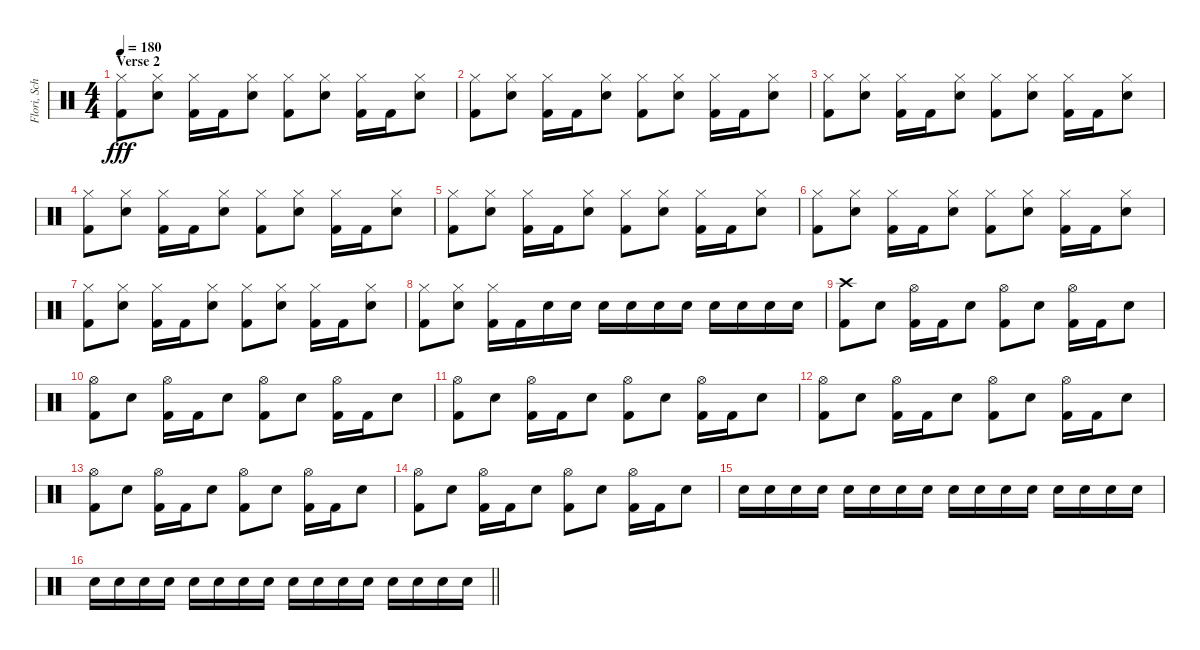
\track ("Flori, Schlagzeug" "Flori, Sch") {instrument percussion}
\staff {score}
\articulation defaults
\ts (4 4)
\section ("" "Verse 2")
\tempo 180
\clef neutral
\ks c
("Hi-Hat (closed)" "Kick (hit) 2").8{dy fff} ("Hi-Hat (closed)" "Electric Snare (hit)").8 ("Hi-Hat (closed)" "Kick (hit) 2").16 "Kick (hit) 2".16 ("Hi-Hat (closed)" "Electric Snare (hit)").8 ("Hi-Hat (closed)" "Kick (hit) 2").8 ("Hi-Hat (closed)" "Electric Snare (hit)").8 ("Hi-Hat (closed)" "Kick (hit) 2").16 "Kick (hit) 2".16 ("Hi-Hat (closed)" "Electric Snare (hit)").8 |
("Hi-Hat (closed)" "Kick (hit) 2").8 ("Hi-Hat (closed)" "Electric Snare (hit)").8 ("Hi-Hat (closed)" "Kick (hit) 2").16 "Kick (hit) 2".16 ("Hi-Hat (closed)" "Electric Snare (hit)").8 ("Hi-Hat (closed)" "Kick (hit) 2").8 ("Hi-Hat (closed)" "Electric Snare (hit)").8 ("Hi-Hat (closed)" "Kick (hit) 2").16 "Kick (hit) 2".16 ("Hi-Hat (closed)" "Electric Snare (hit)").8 |
("Hi-Hat (closed)" "Kick (hit) 2").8 ("Hi-Hat (closed)" "Electric Snare (hit)").8 ("Hi-Hat (closed)" "Kick (hit) 2").16 "Kick (hit) 2".16 ("Hi-Hat (closed)" "Electric Snare (hit)").8 ("Hi-Hat (closed)" "Kick (hit) 2").8 ("Hi-Hat (closed)" "Electric Snare (hit)").8 ("Hi-Hat (closed)" "Kick (hit) 2").16 "Kick (hit) 2".16 ("Hi-Hat (closed)" "Electric Snare (hit)").8 |
("Hi-Hat (closed)" "Kick (hit) 2").8 ("Hi-Hat (closed)" "Electric Snare (hit)").8 ("Hi-Hat (closed)" "Kick (hit) 2").16 "Kick (hit) 2".16 ("Hi-Hat (closed)" "Electric Snare (hit)").8 ("Hi-Hat (closed)" "Kick (hit) 2").8 ("Hi-Hat (closed)" "Electric Snare (hit)").8 ("Hi-Hat (closed)" "Kick (hit) 2").16 "Kick (hit) 2".16 ("Hi-Hat (closed)" "Electric Snare (hit)").8 |
("Hi-Hat (closed)" "Kick (hit) 2").8 ("Hi-Hat (closed)" "Electric Snare (hit)").8 ("Hi-Hat (closed)" "Kick (hit) 2").16 "Kick (hit) 2".16 ("Hi-Hat (closed)" "Electric Snare (hit)").8 ("Hi-Hat (closed)" "Kick (hit) 2").8 ("Hi-Hat (closed)" "Electric Snare (hit)").8 ("Hi-Hat (closed)" "Kick (hit) 2").16 "Kick (hit) 2".16 ("Hi-Hat (closed)" "Electric Snare (hit)").8 |
("Hi-Hat (closed)" "Kick (hit) 2").8 ("Hi-Hat (closed)" "Electric Snare (hit)").8 ("Hi-Hat (closed)" "Kick (hit) 2").16 "Kick (hit) 2".16 ("Hi-Hat (closed)" "Electric Snare (hit)").8 ("Hi-Hat (closed)" "Kick (hit) 2").8 ("Hi-Hat (closed)" "Electric Snare (hit)").8 ("Hi-Hat (closed)" "Kick (hit) 2").16 "Kick (hit) 2".16 ("Hi-Hat (closed)" "Electric Snare (hit)").8 |
("Hi-Hat (closed)" "Kick (hit) 2").8 ("Hi-Hat (closed)" "Electric Snare (hit)").8 ("Hi-Hat (closed)" "Kick (hit) 2").16 "Kick (hit) 2".16 ("Hi-Hat (closed)" "Electric Snare (hit)").8 ("Hi-Hat (closed)" "Kick (hit) 2").8 ("Hi-Hat (closed)" "Electric Snare (hit)").8 ("Hi-Hat (closed)" "Kick (hit) 2").16 "Kick (hit) 2".16 ("Hi-Hat (closed)" "Electric Snare (hit)").8 |
("Hi-Hat (closed)" "Kick (hit) 2").8 ("Hi-Hat (closed)" "Electric Snare (hit)").8 ("Hi-Hat (closed)" "Kick (hit) 2").16 "Kick (hit) 2".16 "Electric Snare (hit)".16 "Electric Snare (hit)".16 "Electric Snare (hit)".16 "Electric Snare (hit)".16 "Electric Snare (hit)".16 "Electric Snare (hit)".16 "Electric Snare (hit)".16 "Electric Snare (hit)".16 "Electric Snare (hit)".16 "Electric Snare (hit)".16 |
("Crash high (hit)" "Kick (hit) 2").8 "Electric Snare (hit)".8 ("Hi-Hat (open)" "Kick (hit) 2").16 "Kick (hit) 2".16 "Electric Snare (hit)".8 ("Hi-Hat (open)" "Kick (hit) 2").8 "Electric Snare (hit)".8 ("Hi-Hat (open)" "Kick (hit) 2").16 "Kick (hit) 2".16 "Electric Snare (hit)".8 |
("Hi-Hat (open)" "Kick (hit) 2").8 "Electric Snare (hit)".8 ("Hi-Hat (open)" "Kick (hit) 2").16 "Kick (hit) 2".16 "Electric Snare (hit)".8 ("Hi-Hat (open)" "Kick (hit) 2").8 "Electric Snare (hit)".8 ("Hi-Hat (open)" "Kick (hit) 2").16 "Kick (hit) 2".16 "Electric Snare (hit)".8 |
("Hi-Hat (open)" "Kick (hit) 2").8 "Electric Snare (hit)".8 ("Hi-Hat (open)" "Kick (hit) 2").16 "Kick (hit) 2".16 "Electric Snare (hit)".8 ("Hi-Hat (open)" "Kick (hit) 2").8 "Electric Snare (hit)".8 ("Hi-Hat (open)" "Kick (hit) 2").16 "Kick (hit) 2".16 "Electric Snare (hit)".8 |
("Hi-Hat (open)" "Kick (hit) 2").8 "Electric Snare (hit)".8 ("Hi-Hat (open)" "Kick (hit) 2").16 "Kick (hit) 2".16 "Electric Snare (hit)".8 ("Hi-Hat (open)" "Kick (hit) 2").8 "Electric Snare (hit)".8 ("Hi-Hat (open)" "Kick (hit) 2").16 "Kick (hit) 2".16 "Electric Snare (hit)".8 |
("Hi-Hat (open)" "Kick (hit) 2").8 "Electric Snare (hit)".8 ("Hi-Hat (open)" "Kick (hit) 2").16 "Kick (hit) 2".16 "Electric Snare (hit)".8 ("Hi-Hat (open)" "Kick (hit) 2").8 "Electric Snare (hit)".8 ("Hi-Hat (open)" "Kick (hit) 2").16 "Kick (hit) 2".16 "Electric Snare (hit)".8 |
("Hi-Hat (open)" "Kick (hit) 2").8 "Electric Snare (hit)".8 ("Hi-Hat (open)" "Kick (hit) 2").16 "Kick (hit) 2".16 "Electric Snare (hit)".8 ("Hi-Hat (open)" "Kick (hit) 2").8 "Electric Snare (hit)".8 ("Hi-Hat (open)" "Kick (hit) 2").16 "Kick (hit) 2".16 "Electric Snare (hit)".8 |
"Electric Snare (hit)".16 "Electric Snare (hit)".16 "Electric Snare (hit)".16 "Electric Snare (hit)".16 "Electric Snare (hit)".16 "Electric Snare (hit)".16 "Electric Snare (hit)".16 "Electric Snare (hit)".16 "Electric Snare (hit)".16 "Electric Snare (hit)".16 "Electric Snare (hit)".16 "Electric Snare (hit)".16 "Electric Snare (hit)".16 "Electric Snare (hit)".16 "Electric Snare (hit)".16 "Electric Snare (hit)".16 |
\barLineRight lightlight "Electric Snare (hit)".16 "Electric Snare (hit)".16 "Electric Snare (hit)".16 "Electric Snare (hit)".16 "Electric Snare (hit)".16 "Electric Snare (hit)".16 "Electric Snare (hit)".16 "Electric Snare (hit)".16 "Electric Snare (hit)".16 "Electric Snare (hit)".16 "Electric Snare (hit)".16 "Electric Snare (hit)".16 "Electric Snare (hit)".16 "Electric Snare (hit)".16 "Electric Snare (hit)".16 "Electric Snare (hit)".16
